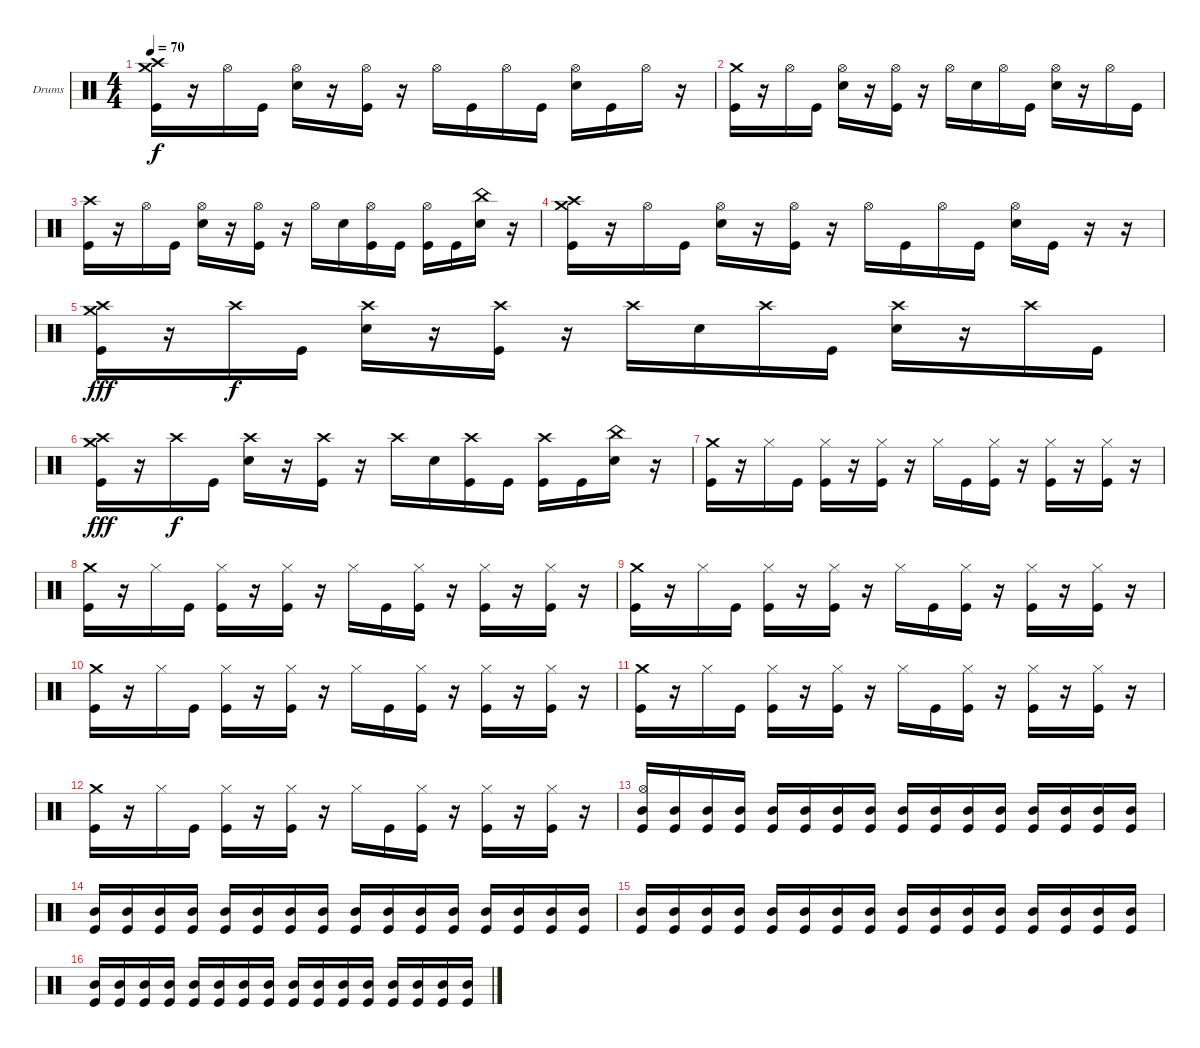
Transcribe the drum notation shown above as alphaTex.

\defaultSystemsLayout 4
\bracketExtendMode groupsimilarinstruments
\firstSystemTrackNameOrientation horizontal
\otherSystemsTrackNameOrientation horizontal
\track ("" "Drums") {instrument percussion}
\staff {score}
\articulation defaults
\ts (4 4)
\tempo 70
\clef neutral
\scale
0.333333
\ks c
("Crash high (hit)" "Crash medium (hit)" "Kick (hit)").16{dy f} r.16 "Hi-Hat (open)".16 "Kick (hit)".16 ("Hi-Hat (open)" "Snare (hit) 2").16 r.16 ("Hi-Hat (open)" "Kick (hit)").16 r.16 "Hi-Hat (open)".16 "Kick (hit)".16 "Hi-Hat (open)".16 "Kick (hit)".16 ("Hi-Hat (open)" "Snare (hit) 2").16 "Kick (hit)".16 "Hi-Hat (open)".16 r.16 |
\scale
0.333333 ("Crash medium (hit)" "Kick (hit)").16 r.16 "Hi-Hat (open)".16 "Kick (hit)".16 ("Hi-Hat (open)" "Snare (hit) 2").16 r.16 ("Hi-Hat (open)" "Kick (hit)").16 r.16 "Hi-Hat (open)".16 "Snare (hit) 2".16 "Hi-Hat (open)".16 "Kick (hit)".16 ("Hi-Hat (open)" "Snare (hit) 2").16 r.16 "Hi-Hat (open)".16 "Kick (hit)".16 |
\scale
0.333333 ("Crash high (hit)" "Kick (hit)").16 r.16 "Hi-Hat (open)".16 "Kick (hit)".16 ("Hi-Hat (open)" "Snare (hit) 2").16 r.16 ("Hi-Hat (open)" "Kick (hit)").16 r.16 "Hi-Hat (open)".16 "Snare (hit) 2".16 ("Hi-Hat (open)" "Kick (hit)").16 "Kick (hit)".16 ("Hi-Hat (open)" "Kick (hit)").16 "Kick (hit)".16 ("China (hit)" "Snare (hit) 2").16 r.16 |
\scale
0.333333 ("Crash high (hit)" "Crash medium (hit)" "Kick (hit)").16 r.16 "Hi-Hat (open)".16 "Kick (hit)".16 ("Hi-Hat (open)" "Snare (hit) 2").16 r.16 ("Hi-Hat (open)" "Kick (hit)").16 r.16 "Hi-Hat (open)".16 "Kick (hit)".16 "Hi-Hat (open)".16 "Kick (hit)".16 ("Hi-Hat (open)" "Snare (hit) 2").16 "Kick (hit)".16 r.16 r.16 |
\scale
0.333333 ("Crash high (hit)" "Crash medium (hit)" "Kick (hit)").16{dy fff} r.16 "Crash high (hit)".16{dy f} "Kick (hit)".16 ("Crash high (hit)" "Snare (hit) 2").16 r.16 ("Crash high (hit)" "Kick (hit)").16 r.16 "Crash high (hit)".16 "Snare (hit) 2".16 "Crash high (hit)".16 "Kick (hit)".16 ("Crash high (hit)" "Snare (hit) 2").16 r.16 "Crash high (hit)".16 "Kick (hit)".16 |
\scale
0.333333 ("Crash high (hit)" "Crash medium (hit)" "Kick (hit)").16{dy fff} r.16 "Crash high (hit)".16{dy f} "Kick (hit)".16 ("Crash high (hit)" "Snare (hit) 2").16 r.16 ("Crash high (hit)" "Kick (hit)").16 r.16 "Crash high (hit)".16 "Snare (hit) 2".16 ("Crash high (hit)" "Kick (hit)").16 "Kick (hit)".16 ("Crash high (hit)" "Kick (hit)").16 "Kick (hit)".16 ("China (hit)" "Snare (hit) 2").16 r.16 |
\scale
0.333333 ("Crash medium (hit)" "Kick (hit)").16 r.16 "Hi-Hat (closed)".16 "Kick (hit)".16 ("Hi-Hat (closed)" "Kick (hit)").16 r.16 ("Hi-Hat (closed)" "Kick (hit)").16 r.16 "Hi-Hat (closed)".16 "Kick (hit)".16 ("Hi-Hat (closed)" "Kick (hit)").16 r.16 ("Hi-Hat (closed)" "Kick (hit)").16 r.16 ("Hi-Hat (closed)" "Kick (hit)").16 r.16 |
\scale
0.333333 ("Crash medium (hit)" "Kick (hit)").16 r.16 "Hi-Hat (closed)".16 "Kick (hit)".16 ("Hi-Hat (closed)" "Kick (hit)").16 r.16 ("Hi-Hat (closed)" "Kick (hit)").16 r.16 "Hi-Hat (closed)".16 "Kick (hit)".16 ("Hi-Hat (closed)" "Kick (hit)").16 r.16 ("Hi-Hat (closed)" "Kick (hit)").16 r.16 ("Hi-Hat (closed)" "Kick (hit)").16 r.16 |
\scale
0.333333 ("Crash medium (hit)" "Kick (hit)").16 r.16 "Hi-Hat (closed)".16 "Kick (hit)".16 ("Hi-Hat (closed)" "Kick (hit)").16 r.16 ("Hi-Hat (closed)" "Kick (hit)").16 r.16 "Hi-Hat (closed)".16 "Kick (hit)".16 ("Hi-Hat (closed)" "Kick (hit)").16 r.16 ("Hi-Hat (closed)" "Kick (hit)").16 r.16 ("Hi-Hat (closed)" "Kick (hit)").16 r.16 |
\scale
0.333333 ("Crash medium (hit)" "Kick (hit)").16 r.16 "Hi-Hat (closed)".16 "Kick (hit)".16 ("Hi-Hat (closed)" "Kick (hit)").16 r.16 ("Hi-Hat (closed)" "Kick (hit)").16 r.16 "Hi-Hat (closed)".16 "Kick (hit)".16 ("Hi-Hat (closed)" "Kick (hit)").16 r.16 ("Hi-Hat (closed)" "Kick (hit)").16 r.16 ("Hi-Hat (closed)" "Kick (hit)").16 r.16 |
\scale
0.333333 ("Crash medium (hit)" "Kick (hit)").16 r.16 "Hi-Hat (closed)".16 "Kick (hit)".16 ("Hi-Hat (closed)" "Kick (hit)").16 r.16 ("Hi-Hat (closed)" "Kick (hit)").16 r.16 "Hi-Hat (closed)".16 "Kick (hit)".16 ("Hi-Hat (closed)" "Kick (hit)").16 r.16 ("Hi-Hat (closed)" "Kick (hit)").16 r.16 ("Hi-Hat (closed)" "Kick (hit)").16 r.16 |
\scale
0.333333 ("Crash medium (hit)" "Kick (hit)").16 r.16 "Hi-Hat (closed)".16 "Kick (hit)".16 ("Hi-Hat (closed)" "Kick (hit)").16 r.16 ("Hi-Hat (closed)" "Kick (hit)").16 r.16 "Hi-Hat (closed)".16 "Kick (hit)".16 ("Hi-Hat (closed)" "Kick (hit)").16 r.16 ("Hi-Hat (closed)" "Kick (hit)").16 r.16 ("Hi-Hat (closed)" "Kick (hit)").16 r.16 |
\scale
0.333333 ("Hi-Hat (open)" "Mid Tom (hit)" "Kick (hit)").16 ("Mid Tom (hit)" "Kick (hit)").16 ("Mid Tom (hit)" "Kick (hit)").16 ("Mid Tom (hit)" "Kick (hit)").16 ("Mid Tom (hit)" "Kick (hit)").16 ("Mid Tom (hit)" "Kick (hit)").16 ("Mid Tom (hit)" "Kick (hit)").16 ("Mid Tom (hit)" "Kick (hit)").16 ("Mid Tom (hit)" "Kick (hit)").16 ("Mid Tom (hit)" "Kick (hit)").16 ("Mid Tom (hit)" "Kick (hit)").16 ("Mid Tom (hit)" "Kick (hit)").16 ("Mid Tom (hit)" "Kick (hit)").16 ("Mid Tom (hit)" "Kick (hit)").16 ("Mid Tom (hit)" "Kick (hit)").16 ("Mid Tom (hit)" "Kick (hit)").16 |
\scale
0.333333 ("Mid Tom (hit)" "Kick (hit)").16 ("Mid Tom (hit)" "Kick (hit)").16 ("Mid Tom (hit)" "Kick (hit)").16 ("Mid Tom (hit)" "Kick (hit)").16 ("Mid Tom (hit)" "Kick (hit)").16 ("Mid Tom (hit)" "Kick (hit)").16 ("Mid Tom (hit)" "Kick (hit)").16 ("Mid Tom (hit)" "Kick (hit)").16 ("Mid Tom (hit)" "Kick (hit)").16 ("Mid Tom (hit)" "Kick (hit)").16 ("Mid Tom (hit)" "Kick (hit)").16 ("Mid Tom (hit)" "Kick (hit)").16 ("Mid Tom (hit)" "Kick (hit)").16 ("Mid Tom (hit)" "Kick (hit)").16 ("Mid Tom (hit)" "Kick (hit)").16 ("Mid Tom (hit)" "Kick (hit)").16 |
\scale
0.333333 ("Mid Tom (hit)" "Kick (hit)").16 ("Mid Tom (hit)" "Kick (hit)").16 ("Mid Tom (hit)" "Kick (hit)").16 ("Mid Tom (hit)" "Kick (hit)").16 ("Mid Tom (hit)" "Kick (hit)").16 ("Mid Tom (hit)" "Kick (hit)").16 ("Mid Tom (hit)" "Kick (hit)").16 ("Mid Tom (hit)" "Kick (hit)").16 ("Mid Tom (hit)" "Kick (hit)").16 ("Mid Tom (hit)" "Kick (hit)").16 ("Mid Tom (hit)" "Kick (hit)").16 ("Mid Tom (hit)" "Kick (hit)").16 ("Mid Tom (hit)" "Kick (hit)").16 ("Mid Tom (hit)" "Kick (hit)").16 ("Mid Tom (hit)" "Kick (hit)").16 ("Mid Tom (hit)" "Kick (hit)").16 |
\scale
0.333333 ("Mid Tom (hit)" "Kick (hit)").16 ("Mid Tom (hit)" "Kick (hit)").16 ("Mid Tom (hit)" "Kick (hit)").16 ("Mid Tom (hit)" "Kick (hit)").16 ("Mid Tom (hit)" "Kick (hit)").16 ("Mid Tom (hit)" "Kick (hit)").16 ("Mid Tom (hit)" "Kick (hit)").16 ("Mid Tom (hit)" "Kick (hit)").16 ("Mid Tom (hit)" "Kick (hit)").16 ("Mid Tom (hit)" "Kick (hit)").16 ("Mid Tom (hit)" "Kick (hit)").16 ("Mid Tom (hit)" "Kick (hit)").16 ("Mid Tom (hit)" "Kick (hit)").16 ("Mid Tom (hit)" "Kick (hit)").16 ("Mid Tom (hit)" "Kick (hit)").16 ("Mid Tom (hit)" "Kick (hit)").16
